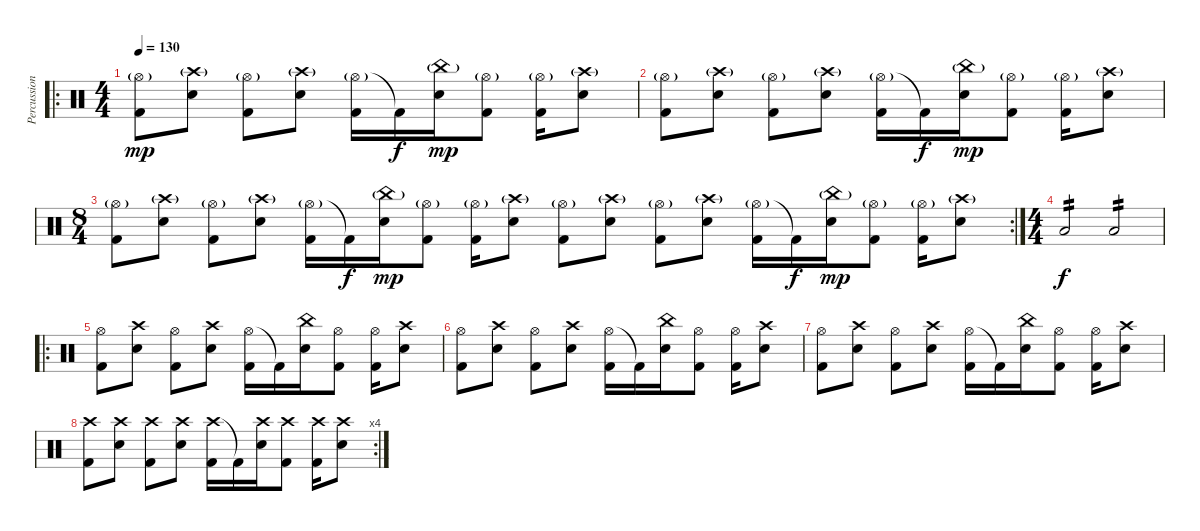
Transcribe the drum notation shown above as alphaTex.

\track ("Percussion" "Percussion") {instrument percussion}
\staff {score}
\articulation defaults
\ro
\ts (4 4)
\tempo 130
\clef neutral
\ks c
("Hi-Hat (open)"{g} "Kick (hit) 2").8{dy mp} ("Crash high (hit)"{g} "Electric Snare (hit)").8 ("Hi-Hat (open)"{g} "Kick (hit) 2").8 ("Crash high (hit)"{g} "Electric Snare (hit)").8 ("Hi-Hat (open)"{g} "Kick (hit) 2").16 "Kick (hit) 2"{t}.16{dy f} ("China (hit)"{g} "Electric Snare (hit)").16{dy mp} ("Hi-Hat (open)"{g} "Kick (hit) 2").8 ("Hi-Hat (open)"{g} "Kick (hit) 2").16 ("Crash high (hit)"{g} "Electric Snare (hit)").8 |
("Hi-Hat (open)"{g} "Kick (hit) 2").8 ("Crash high (hit)"{g} "Electric Snare (hit)").8 ("Hi-Hat (open)"{g} "Kick (hit) 2").8 ("Crash high (hit)"{g} "Electric Snare (hit)").8 ("Hi-Hat (open)"{g} "Kick (hit) 2").16 "Kick (hit) 2"{t}.16{dy f} ("China (hit)"{g} "Electric Snare (hit)").16{dy mp} ("Hi-Hat (open)"{g} "Kick (hit) 2").8 ("Hi-Hat (open)"{g} "Kick (hit) 2").16 ("Crash high (hit)"{g} "Electric Snare (hit)").8 |
\rc 2
\ts (8 4)
("Hi-Hat (open)"{g} "Kick (hit) 2").8 ("Crash high (hit)"{g} "Electric Snare (hit)").8 ("Hi-Hat (open)"{g} "Kick (hit) 2").8 ("Crash high (hit)"{g} "Electric Snare (hit)").8 ("Hi-Hat (open)"{g} "Kick (hit) 2").16 "Kick (hit) 2"{t}.16{dy f} ("China (hit)"{g} "Electric Snare (hit)").16{dy mp} ("Hi-Hat (open)"{g} "Kick (hit) 2").8 ("Hi-Hat (open)"{g} "Kick (hit) 2").16 ("Crash high (hit)"{g} "Electric Snare (hit)").8 ("Hi-Hat (open)"{g} "Kick (hit) 2").8 ("Crash high (hit)"{g} "Electric Snare (hit)").8 ("Hi-Hat (open)"{g} "Kick (hit) 2").8 ("Crash high (hit)"{g} "Electric Snare (hit)").8 ("Hi-Hat (open)"{g} "Kick (hit) 2").16 "Kick (hit) 2"{t}.16{dy f} ("China (hit)"{g} "Electric Snare (hit)").16{dy mp} ("Hi-Hat (open)"{g} "Kick (hit) 2").8 ("Hi-Hat (open)"{g} "Kick (hit) 2").16 ("Crash high (hit)"{g} "Electric Snare (hit)").8 |
\ts (4 4)
"Low Tom (hit)".2{tp 2 dy f} "Low Floor Tom (hit)".2{tp 2} |
\ro
("Hi-Hat (open)" "Kick (hit) 2").8 ("Crash high (hit)" "Electric Snare (hit)").8 ("Hi-Hat (open)" "Kick (hit) 2").8 ("Crash high (hit)" "Electric Snare (hit)").8 ("Hi-Hat (open)" "Kick (hit) 2").16 "Kick (hit) 2"{t}.16 ("China (hit)" "Electric Snare (hit)").16 ("Hi-Hat (open)" "Kick (hit) 2").8 ("Hi-Hat (open)" "Kick (hit) 2").16 ("Crash high (hit)" "Electric Snare (hit)").8 |
("Hi-Hat (open)" "Kick (hit) 2").8 ("Crash high (hit)" "Electric Snare (hit)").8 ("Hi-Hat (open)" "Kick (hit) 2").8 ("Crash high (hit)" "Electric Snare (hit)").8 ("Hi-Hat (open)" "Kick (hit) 2").16 "Kick (hit) 2"{t}.16 ("China (hit)" "Electric Snare (hit)").16 ("Hi-Hat (open)" "Kick (hit) 2").8 ("Hi-Hat (open)" "Kick (hit) 2").16 ("Crash high (hit)" "Electric Snare (hit)").8 |
("Hi-Hat (open)" "Kick (hit) 2").8 ("Crash high (hit)" "Electric Snare (hit)").8 ("Hi-Hat (open)" "Kick (hit) 2").8 ("Crash high (hit)" "Electric Snare (hit)").8 ("Hi-Hat (open)" "Kick (hit) 2").16 "Kick (hit) 2"{t}.16 ("China (hit)" "Electric Snare (hit)").16 ("Hi-Hat (open)" "Kick (hit) 2").8 ("Hi-Hat (open)" "Kick (hit) 2").16 ("Crash high (hit)" "Electric Snare (hit)").8 |
\rc 4
("Crash high (hit)" "Kick (hit) 2").8 ("Crash high (hit)" "Electric Snare (hit)").8 ("Crash high (hit)" "Kick (hit) 2").8 ("Crash high (hit)" "Electric Snare (hit)").8 ("Crash high (hit)" "Kick (hit) 2").16 "Kick (hit) 2"{t}.16 ("Crash high (hit)" "Electric Snare (hit)").16 ("Crash high (hit)" "Kick (hit) 2").8 ("Crash high (hit)" "Kick (hit) 2").16 ("Crash high (hit)" "Electric Snare (hit)").8
